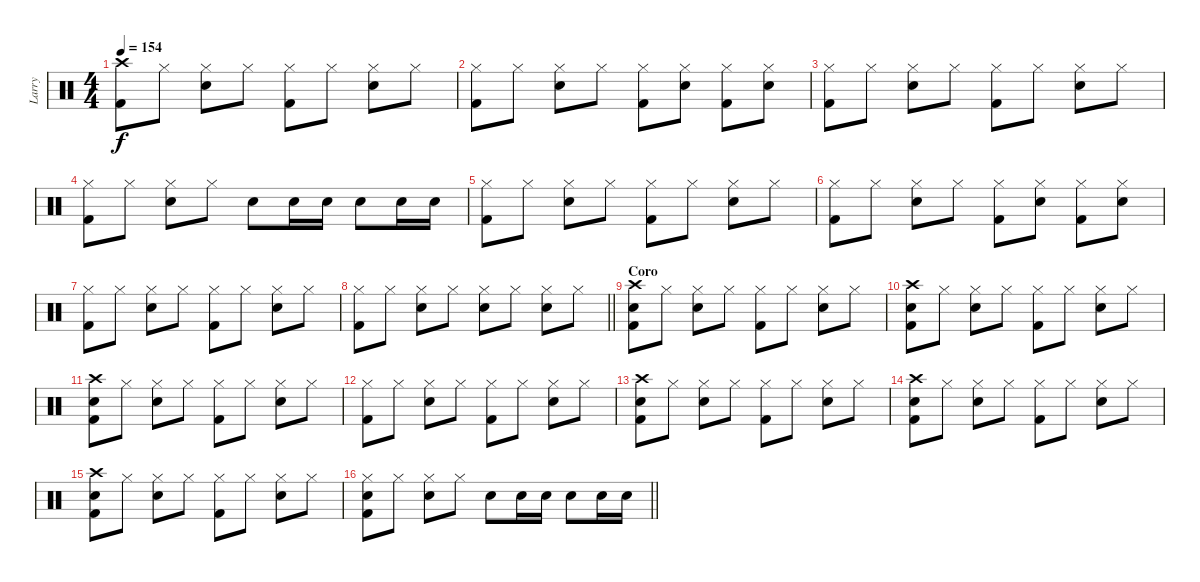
\track ("Larry " "Larry ") {instrument percussion}
\staff {score}
\articulation defaults
\ts (4 4)
\tempo 154
\clef neutral
\ks c
("Crash high (hit)" "Kick (hit) 2").8{dy f} "Hi-Hat (closed)".8 ("Hi-Hat (closed)" "Snare (hit) 2").8 "Hi-Hat (closed)".8 ("Hi-Hat (closed)" "Kick (hit) 2").8 "Hi-Hat (closed)".8 ("Hi-Hat (closed)" "Snare (hit) 2").8 "Hi-Hat (closed)".8 |
("Hi-Hat (closed)" "Kick (hit) 2").8 "Hi-Hat (closed)".8 ("Hi-Hat (closed)" "Snare (hit) 2").8 "Hi-Hat (closed)".8 ("Hi-Hat (closed)" "Kick (hit) 2").8 ("Hi-Hat (closed)" "Snare (hit) 2").8 ("Hi-Hat (closed)" "Kick (hit) 2").8 ("Hi-Hat (closed)" "Snare (hit) 2").8 |
("Hi-Hat (closed)" "Kick (hit) 2").8 "Hi-Hat (closed)".8 ("Hi-Hat (closed)" "Snare (hit) 2").8 "Hi-Hat (closed)".8 ("Hi-Hat (closed)" "Kick (hit) 2").8 "Hi-Hat (closed)".8 ("Hi-Hat (closed)" "Snare (hit) 2").8 "Hi-Hat (closed)".8 |
("Hi-Hat (closed)" "Kick (hit) 2").8 "Hi-Hat (closed)".8 ("Hi-Hat (closed)" "Snare (hit) 2").8 "Hi-Hat (closed)".8 "Snare (hit) 2".8 "Snare (hit) 2".16 "Snare (hit) 2".16 "Snare (hit) 2".8 "Snare (hit) 2".16 "Snare (hit) 2".16 |
("Hi-Hat (closed)" "Kick (hit) 2").8 "Hi-Hat (closed)".8 ("Hi-Hat (closed)" "Snare (hit) 2").8 "Hi-Hat (closed)".8 ("Hi-Hat (closed)" "Kick (hit) 2").8 "Hi-Hat (closed)".8 ("Hi-Hat (closed)" "Snare (hit) 2").8 "Hi-Hat (closed)".8 |
("Hi-Hat (closed)" "Kick (hit) 2").8 "Hi-Hat (closed)".8 ("Hi-Hat (closed)" "Snare (hit) 2").8 "Hi-Hat (closed)".8 ("Hi-Hat (closed)" "Kick (hit) 2").8 ("Hi-Hat (closed)" "Snare (hit) 2").8 ("Hi-Hat (closed)" "Kick (hit) 2").8 ("Hi-Hat (closed)" "Snare (hit) 2").8 |
("Hi-Hat (closed)" "Kick (hit) 2").8 "Hi-Hat (closed)".8 ("Hi-Hat (closed)" "Snare (hit) 2").8 "Hi-Hat (closed)".8 ("Hi-Hat (closed)" "Kick (hit) 2").8 "Hi-Hat (closed)".8 ("Hi-Hat (closed)" "Snare (hit) 2").8 "Hi-Hat (closed)".8 |
\barLineRight lightlight
("Hi-Hat (closed)" "Kick (hit) 2").8 "Hi-Hat (closed)".8 ("Hi-Hat (closed)" "Snare (hit) 2").8 "Hi-Hat (closed)".8 ("Hi-Hat (closed)" "Snare (hit) 2").8 "Hi-Hat (closed)".8 ("Hi-Hat (closed)" "Snare (hit) 2").8 "Hi-Hat (closed)".8 |
\section ("" "Coro")
("Crash high (hit)" "Snare (hit) 2" "Kick (hit) 2").8 "Hi-Hat (closed)".8 ("Hi-Hat (closed)" "Snare (hit) 2").8 "Hi-Hat (closed)".8 ("Hi-Hat (closed)" "Kick (hit) 2").8 "Hi-Hat (closed)".8 ("Hi-Hat (closed)" "Snare (hit) 2").8 "Hi-Hat (closed)".8 |
("Crash high (hit)" "Snare (hit) 2" "Kick (hit) 2").8 "Hi-Hat (closed)".8 ("Hi-Hat (closed)" "Snare (hit) 2").8 "Hi-Hat (closed)".8 ("Hi-Hat (closed)" "Kick (hit) 2").8 "Hi-Hat (closed)".8 ("Hi-Hat (closed)" "Snare (hit) 2").8 "Hi-Hat (closed)".8 |
("Crash high (hit)" "Snare (hit) 2" "Kick (hit) 2").8 "Hi-Hat (closed)".8 ("Hi-Hat (closed)" "Snare (hit) 2").8 "Hi-Hat (closed)".8 ("Hi-Hat (closed)" "Kick (hit) 2").8 "Hi-Hat (closed)".8 ("Hi-Hat (closed)" "Snare (hit) 2").8 "Hi-Hat (closed)".8 |
("Hi-Hat (closed)" "Kick (hit) 2").8 "Hi-Hat (closed)".8 ("Hi-Hat (closed)" "Snare (hit) 2").8 "Hi-Hat (closed)".8 ("Hi-Hat (closed)" "Kick (hit) 2").8 "Hi-Hat (closed)".8 ("Hi-Hat (closed)" "Snare (hit) 2").8 "Hi-Hat (closed)".8 |
("Crash high (hit)" "Snare (hit) 2" "Kick (hit) 2").8 "Hi-Hat (closed)".8 ("Hi-Hat (closed)" "Snare (hit) 2").8 "Hi-Hat (closed)".8 ("Hi-Hat (closed)" "Kick (hit) 2").8 "Hi-Hat (closed)".8 ("Hi-Hat (closed)" "Snare (hit) 2").8 "Hi-Hat (closed)".8 |
("Crash high (hit)" "Snare (hit) 2" "Kick (hit) 2").8 "Hi-Hat (closed)".8 ("Hi-Hat (closed)" "Snare (hit) 2").8 "Hi-Hat (closed)".8 ("Hi-Hat (closed)" "Kick (hit) 2").8 "Hi-Hat (closed)".8 ("Hi-Hat (closed)" "Snare (hit) 2").8 "Hi-Hat (closed)".8 |
("Crash high (hit)" "Snare (hit) 2" "Kick (hit) 2").8 "Hi-Hat (closed)".8 ("Hi-Hat (closed)" "Snare (hit) 2").8 "Hi-Hat (closed)".8 ("Hi-Hat (closed)" "Kick (hit) 2").8 "Hi-Hat (closed)".8 ("Hi-Hat (closed)" "Snare (hit) 2").8 "Hi-Hat (closed)".8 |
\barLineRight lightlight
("Hi-Hat (closed)" "Snare (hit) 2" "Kick (hit) 2").8 "Hi-Hat (closed)".8 ("Hi-Hat (closed)" "Snare (hit) 2").8 "Hi-Hat (closed)".8 "Snare (hit) 2".8 "Snare (hit) 2".16 "Snare (hit) 2".16 "Snare (hit) 2".8 "Snare (hit) 2".16 "Snare (hit) 2".16
